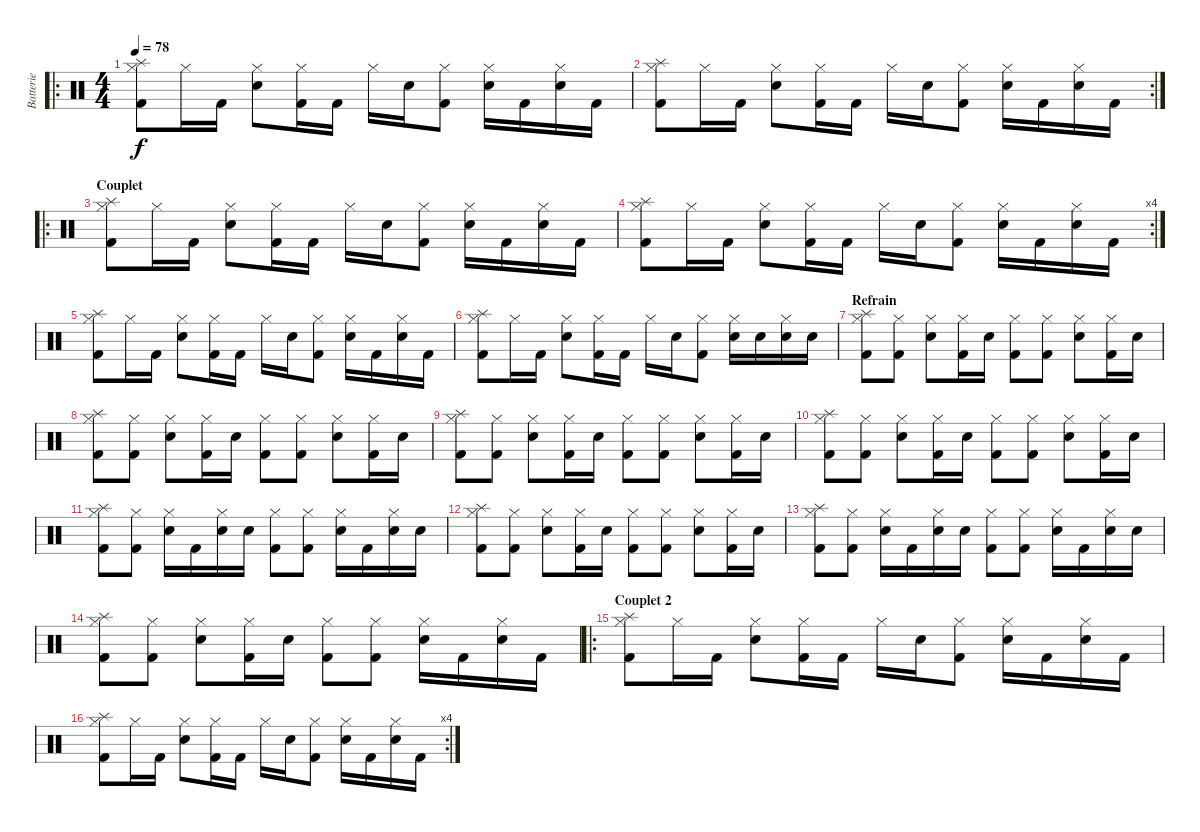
\track ("Batterie" "Batterie") {instrument percussion}
\staff {score}
\articulation defaults
\ro
\ts (4 4)
\tempo 78
\clef neutral
\ks c
("Splash (hit)" "Hi-Hat (closed)" "Kick (hit) 2").8{dy f} "Hi-Hat (closed)".16 "Kick (hit) 2".16 ("Hi-Hat (closed)" "Snare (hit) 2").8 ("Hi-Hat (closed)" "Kick (hit) 2").16 "Kick (hit) 2".16 "Hi-Hat (closed)".16 "Snare (hit) 2".16 ("Hi-Hat (closed)" "Kick (hit) 2").8 ("Hi-Hat (closed)" "Snare (hit) 2").16 "Kick (hit) 2".16 ("Hi-Hat (closed)" "Snare (hit) 2").16 "Kick (hit) 2".16 |
\rc 2
("Splash (hit)" "Hi-Hat (closed)" "Kick (hit) 2").8 "Hi-Hat (closed)".16 "Kick (hit) 2".16 ("Hi-Hat (closed)" "Snare (hit) 2").8 ("Hi-Hat (closed)" "Kick (hit) 2").16 "Kick (hit) 2".16 "Hi-Hat (closed)".16 "Snare (hit) 2".16 ("Hi-Hat (closed)" "Kick (hit) 2").8 ("Hi-Hat (closed)" "Snare (hit) 2").16 "Kick (hit) 2".16 ("Hi-Hat (closed)" "Snare (hit) 2").16 "Kick (hit) 2".16 |
\ro
\section ("" "Couplet")
("Splash (hit)" "Hi-Hat (closed)" "Kick (hit) 2").8 "Hi-Hat (closed)".16 "Kick (hit) 2".16 ("Hi-Hat (closed)" "Snare (hit) 2").8 ("Hi-Hat (closed)" "Kick (hit) 2").16 "Kick (hit) 2".16 "Hi-Hat (closed)".16 "Snare (hit) 2".16 ("Hi-Hat (closed)" "Kick (hit) 2").8 ("Hi-Hat (closed)" "Snare (hit) 2").16 "Kick (hit) 2".16 ("Hi-Hat (closed)" "Snare (hit) 2").16 "Kick (hit) 2".16 |
\rc 4
("Splash (hit)" "Hi-Hat (closed)" "Kick (hit) 2").8 "Hi-Hat (closed)".16 "Kick (hit) 2".16 ("Hi-Hat (closed)" "Snare (hit) 2").8 ("Hi-Hat (closed)" "Kick (hit) 2").16 "Kick (hit) 2".16 "Hi-Hat (closed)".16 "Snare (hit) 2".16 ("Hi-Hat (closed)" "Kick (hit) 2").8 ("Hi-Hat (closed)" "Snare (hit) 2").16 "Kick (hit) 2".16 ("Hi-Hat (closed)" "Snare (hit) 2").16 "Kick (hit) 2".16 |
("Splash (hit)" "Hi-Hat (closed)" "Kick (hit) 2").8 "Hi-Hat (closed)".16 "Kick (hit) 2".16 ("Hi-Hat (closed)" "Snare (hit) 2").8 ("Hi-Hat (closed)" "Kick (hit) 2").16 "Kick (hit) 2".16 "Hi-Hat (closed)".16 "Snare (hit) 2".16 ("Hi-Hat (closed)" "Kick (hit) 2").8 ("Hi-Hat (closed)" "Snare (hit) 2").16 "Kick (hit) 2".16 ("Hi-Hat (closed)" "Snare (hit) 2").16 "Kick (hit) 2".16 |
("Splash (hit)" "Hi-Hat (closed)" "Kick (hit) 2").8 "Hi-Hat (closed)".16 "Kick (hit) 2".16 ("Hi-Hat (closed)" "Snare (hit) 2").8 ("Hi-Hat (closed)" "Kick (hit) 2").16 "Kick (hit) 2".16 "Hi-Hat (closed)".16 "Snare (hit) 2".16 ("Hi-Hat (closed)" "Kick (hit) 2").8 ("Hi-Hat (closed)" "Snare (hit) 2").16 "Snare (hit) 2".16 ("Hi-Hat (closed)" "Snare (hit) 2").16 "Snare (hit) 2".16 |
\section ("" "Refrain")
("Splash (hit)" "Hi-Hat (closed)" "Kick (hit) 2").8 ("Hi-Hat (closed)" "Kick (hit) 2").8 ("Hi-Hat (closed)" "Snare (hit) 2").8 ("Hi-Hat (closed)" "Kick (hit) 2").16 "Snare (hit) 2".16 ("Hi-Hat (closed)" "Kick (hit) 2").8 ("Hi-Hat (closed)" "Kick (hit) 2").8 ("Hi-Hat (closed)" "Snare (hit) 2").8 ("Hi-Hat (closed)" "Kick (hit) 2").16 "Snare (hit) 2".16 |
("Splash (hit)" "Hi-Hat (closed)" "Kick (hit) 2").8 ("Hi-Hat (closed)" "Kick (hit) 2").8 ("Hi-Hat (closed)" "Snare (hit) 2").8 ("Hi-Hat (closed)" "Kick (hit) 2").16 "Snare (hit) 2".16 ("Hi-Hat (closed)" "Kick (hit) 2").8 ("Hi-Hat (closed)" "Kick (hit) 2").8 ("Hi-Hat (closed)" "Snare (hit) 2").8 ("Hi-Hat (closed)" "Kick (hit) 2").16 "Snare (hit) 2".16 |
("Splash (hit)" "Hi-Hat (closed)" "Kick (hit) 2").8 ("Hi-Hat (closed)" "Kick (hit) 2").8 ("Hi-Hat (closed)" "Snare (hit) 2").8 ("Hi-Hat (closed)" "Kick (hit) 2").16 "Snare (hit) 2".16 ("Hi-Hat (closed)" "Kick (hit) 2").8 ("Hi-Hat (closed)" "Kick (hit) 2").8 ("Hi-Hat (closed)" "Snare (hit) 2").8 ("Hi-Hat (closed)" "Kick (hit) 2").16 "Snare (hit) 2".16 |
("Splash (hit)" "Hi-Hat (closed)" "Kick (hit) 2").8 ("Hi-Hat (closed)" "Kick (hit) 2").8 ("Hi-Hat (closed)" "Snare (hit) 2").8 ("Hi-Hat (closed)" "Kick (hit) 2").16 "Snare (hit) 2".16 ("Hi-Hat (closed)" "Kick (hit) 2").8 ("Hi-Hat (closed)" "Kick (hit) 2").8 ("Hi-Hat (closed)" "Snare (hit) 2").8 ("Hi-Hat (closed)" "Kick (hit) 2").16 "Snare (hit) 2".16 |
("Splash (hit)" "Hi-Hat (closed)" "Kick (hit) 2").8 ("Hi-Hat (closed)" "Kick (hit) 2").8 ("Hi-Hat (closed)" "Snare (hit) 2").16 "Kick (hit) 2".16 ("Hi-Hat (closed)" "Snare (hit) 2").16 "Snare (hit) 2".16 ("Hi-Hat (closed)" "Kick (hit) 2").8 ("Hi-Hat (closed)" "Kick (hit) 2").8 ("Hi-Hat (closed)" "Snare (hit) 2").16 "Kick (hit) 2".16 ("Hi-Hat (closed)" "Snare (hit) 2").16 "Snare (hit) 2".16 |
("Splash (hit)" "Hi-Hat (closed)" "Kick (hit) 2").8 ("Hi-Hat (closed)" "Kick (hit) 2").8 ("Hi-Hat (closed)" "Snare (hit) 2").8 ("Hi-Hat (closed)" "Kick (hit) 2").16 "Snare (hit) 2".16 ("Hi-Hat (closed)" "Kick (hit) 2").8 ("Hi-Hat (closed)" "Kick (hit) 2").8 ("Hi-Hat (closed)" "Snare (hit) 2").8 ("Hi-Hat (closed)" "Kick (hit) 2").16 "Snare (hit) 2".16 |
("Splash (hit)" "Hi-Hat (closed)" "Kick (hit) 2").8 ("Hi-Hat (closed)" "Kick (hit) 2").8 ("Hi-Hat (closed)" "Snare (hit) 2").16 "Kick (hit) 2".16 ("Hi-Hat (closed)" "Snare (hit) 2").16 "Snare (hit) 2".16 ("Hi-Hat (closed)" "Kick (hit) 2").8 ("Hi-Hat (closed)" "Kick (hit) 2").8 ("Hi-Hat (closed)" "Snare (hit) 2").16 "Kick (hit) 2".16 ("Hi-Hat (closed)" "Snare (hit) 2").16 "Snare (hit) 2".16 |
("Splash (hit)" "Hi-Hat (closed)" "Kick (hit) 2").8 ("Hi-Hat (closed)" "Kick (hit) 2").8 ("Hi-Hat (closed)" "Snare (hit) 2").8 ("Hi-Hat (closed)" "Kick (hit) 2").16 "Snare (hit) 2".16 ("Hi-Hat (closed)" "Kick (hit) 2").8 ("Hi-Hat (closed)" "Kick (hit) 2").8 ("Hi-Hat (closed)" "Snare (hit) 2").16 "Kick (hit) 2".16 ("Hi-Hat (closed)" "Snare (hit) 2").16 "Kick (hit) 2".16 |
\ro
\section ("" "Couplet 2")
("Splash (hit)" "Hi-Hat (closed)" "Kick (hit) 2").8 "Hi-Hat (closed)".16 "Kick (hit) 2".16 ("Hi-Hat (closed)" "Snare (hit) 2").8 ("Hi-Hat (closed)" "Kick (hit) 2").16 "Kick (hit) 2".16 "Hi-Hat (closed)".16 "Snare (hit) 2".16 ("Hi-Hat (closed)" "Kick (hit) 2").8 ("Hi-Hat (closed)" "Snare (hit) 2").16 "Kick (hit) 2".16 ("Hi-Hat (closed)" "Snare (hit) 2").16 "Kick (hit) 2".16 |
\rc 4
("Splash (hit)" "Hi-Hat (closed)" "Kick (hit) 2").8 "Hi-Hat (closed)".16 "Kick (hit) 2".16 ("Hi-Hat (closed)" "Snare (hit) 2").8 ("Hi-Hat (closed)" "Kick (hit) 2").16 "Kick (hit) 2".16 "Hi-Hat (closed)".16 "Snare (hit) 2".16 ("Hi-Hat (closed)" "Kick (hit) 2").8 ("Hi-Hat (closed)" "Snare (hit) 2").16 "Kick (hit) 2".16 ("Hi-Hat (closed)" "Snare (hit) 2").16 "Kick (hit) 2".16
